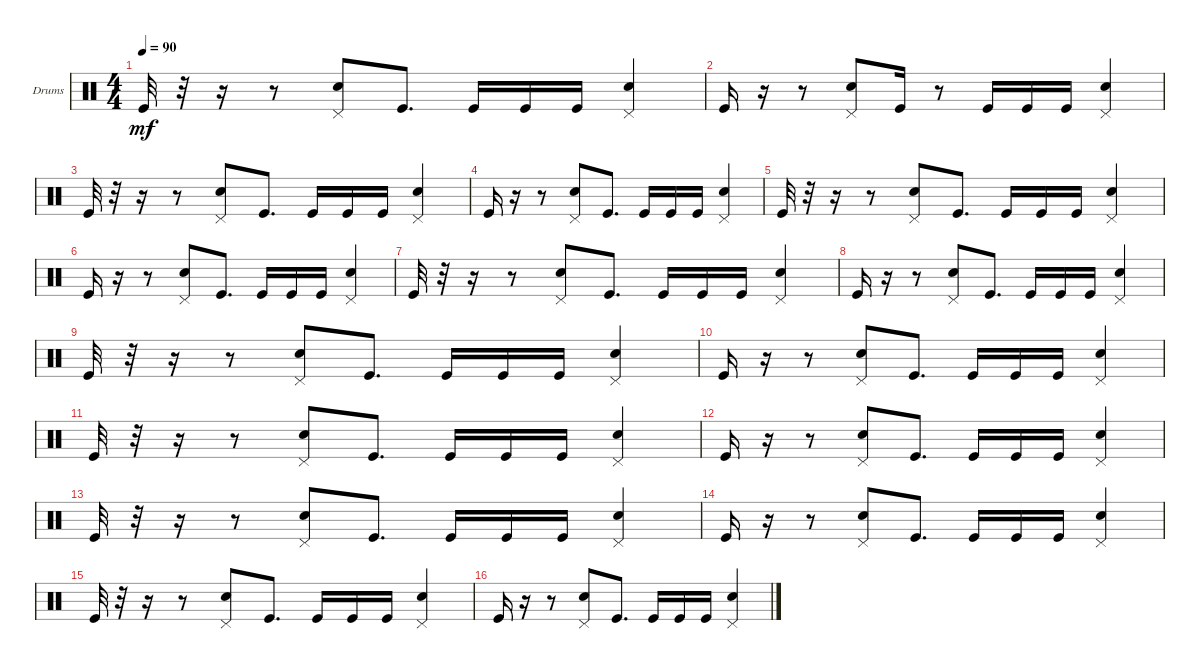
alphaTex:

\bracketExtendMode groupsimilarinstruments
\firstSystemTrackNameOrientation horizontal
\otherSystemsTrackNameOrientation horizontal
\track ("Drumkit" "Drums") {instrument percussion}
\staff {score}
\articulation defaults
\ts (4 4)
\tempo 90
\clef neutral
\ks c "Kick (hit)".32{dy mf}
r.32 r.16 r.8 ("Pedal Hi-Hat (hit)" "Snare (hit) 2").8 "Kick (hit)".8{d} "Kick (hit)".16 "Kick (hit)".16 "Kick (hit)".16 ("Pedal Hi-Hat (hit)" "Snare (hit) 2").4 |
"Kick (hit)".16 r.16 r.8 ("Pedal Hi-Hat (hit)" "Snare (hit) 2").8 "Kick (hit)".16 r.8 "Kick (hit)".16 "Kick (hit)".16 "Kick (hit)".16 ("Pedal Hi-Hat (hit)" "Snare (hit) 2").4 |
"Kick (hit)".32 r.32 r.16 r.8 ("Pedal Hi-Hat (hit)" "Snare (hit) 2").8 "Kick (hit)".8{d} "Kick (hit)".16 "Kick (hit)".16 "Kick (hit)".16 ("Snare (hit) 2" "Pedal Hi-Hat (hit)").4 |
"Kick (hit)".16 r.16 r.8 ("Snare (hit) 2" "Pedal Hi-Hat (hit)").8 "Kick (hit)".8{d} "Kick (hit)".16 "Kick (hit)".16 "Kick (hit)".16 ("Snare (hit) 2" "Pedal Hi-Hat (hit)").4 |
"Kick (hit)".32 r.32 r.16 r.8 ("Snare (hit) 2" "Pedal Hi-Hat (hit)").8 "Kick (hit)".8{d} "Kick (hit)".16 "Kick (hit)".16 "Kick (hit)".16 ("Snare (hit) 2" "Pedal Hi-Hat (hit)").4 |
"Kick (hit)".16 r.16 r.8 ("Pedal Hi-Hat (hit)" "Snare (hit) 2").8 "Kick (hit)".8{d} "Kick (hit)".16 "Kick (hit)".16 "Kick (hit)".16 ("Pedal Hi-Hat (hit)" "Snare (hit) 2").4 |
"Kick (hit)".32 r.32 r.16 r.8 ("Pedal Hi-Hat (hit)" "Snare (hit) 2").8 "Kick (hit)".8{d} "Kick (hit)".16 "Kick (hit)".16 "Kick (hit)".16 ("Pedal Hi-Hat (hit)" "Snare (hit) 2").4 |
"Kick (hit)".16 r.16 r.8 ("Snare (hit) 2" "Pedal Hi-Hat (hit)").8 "Kick (hit)".8{d} "Kick (hit)".16 "Kick (hit)".16 "Kick (hit)".16 ("Snare (hit) 2" "Pedal Hi-Hat (hit)").4 |
"Kick (hit)".32 r.32 r.16 r.8 ("Snare (hit) 2" "Pedal Hi-Hat (hit)").8 "Kick (hit)".8{d} "Kick (hit)".16 "Kick (hit)".16 "Kick (hit)".16 ("Snare (hit) 2" "Pedal Hi-Hat (hit)").4 |
"Kick (hit)".16 r.16 r.8 ("Pedal Hi-Hat (hit)" "Snare (hit) 2").8 "Kick (hit)".8{d} "Kick (hit)".16 "Kick (hit)".16 "Kick (hit)".16 ("Pedal Hi-Hat (hit)" "Snare (hit) 2").4 |
"Kick (hit)".32 r.32 r.16 r.8 ("Pedal Hi-Hat (hit)" "Snare (hit) 2").8 "Kick (hit)".8{d} "Kick (hit)".16 "Kick (hit)".16 "Kick (hit)".16 ("Pedal Hi-Hat (hit)" "Snare (hit) 2").4 |
"Kick (hit)".16 r.16 r.8 ("Snare (hit) 2" "Pedal Hi-Hat (hit)").8 "Kick (hit)".8{d} "Kick (hit)".16 "Kick (hit)".16 "Kick (hit)".16 ("Pedal Hi-Hat (hit)" "Snare (hit) 2").4 |
"Kick (hit)".32 r.32 r.16 r.8 ("Pedal Hi-Hat (hit)" "Snare (hit) 2").8 "Kick (hit)".8{d} "Kick (hit)".16 "Kick (hit)".16 "Kick (hit)".16 ("Snare (hit) 2" "Pedal Hi-Hat (hit)").4 |
"Kick (hit)".16 r.16 r.8 ("Snare (hit) 2" "Pedal Hi-Hat (hit)").8 "Kick (hit)".8{d} "Kick (hit)".16 "Kick (hit)".16 "Kick (hit)".16 ("Pedal Hi-Hat (hit)" "Snare (hit) 2").4 |
"Kick (hit)".32 r.32 r.16 r.8 ("Snare (hit) 2" "Pedal Hi-Hat (hit)").8 "Kick (hit)".8{d} "Kick (hit)".16 "Kick (hit)".16 "Kick (hit)".16 ("Pedal Hi-Hat (hit)" "Snare (hit) 2").4 |
"Kick (hit)".16 r.16 r.8 ("Pedal Hi-Hat (hit)" "Snare (hit) 2").8 "Kick (hit)".8{d} "Kick (hit)".16 "Kick (hit)".16 "Kick (hit)".16 ("Pedal Hi-Hat (hit)" "Snare (hit) 2").4
